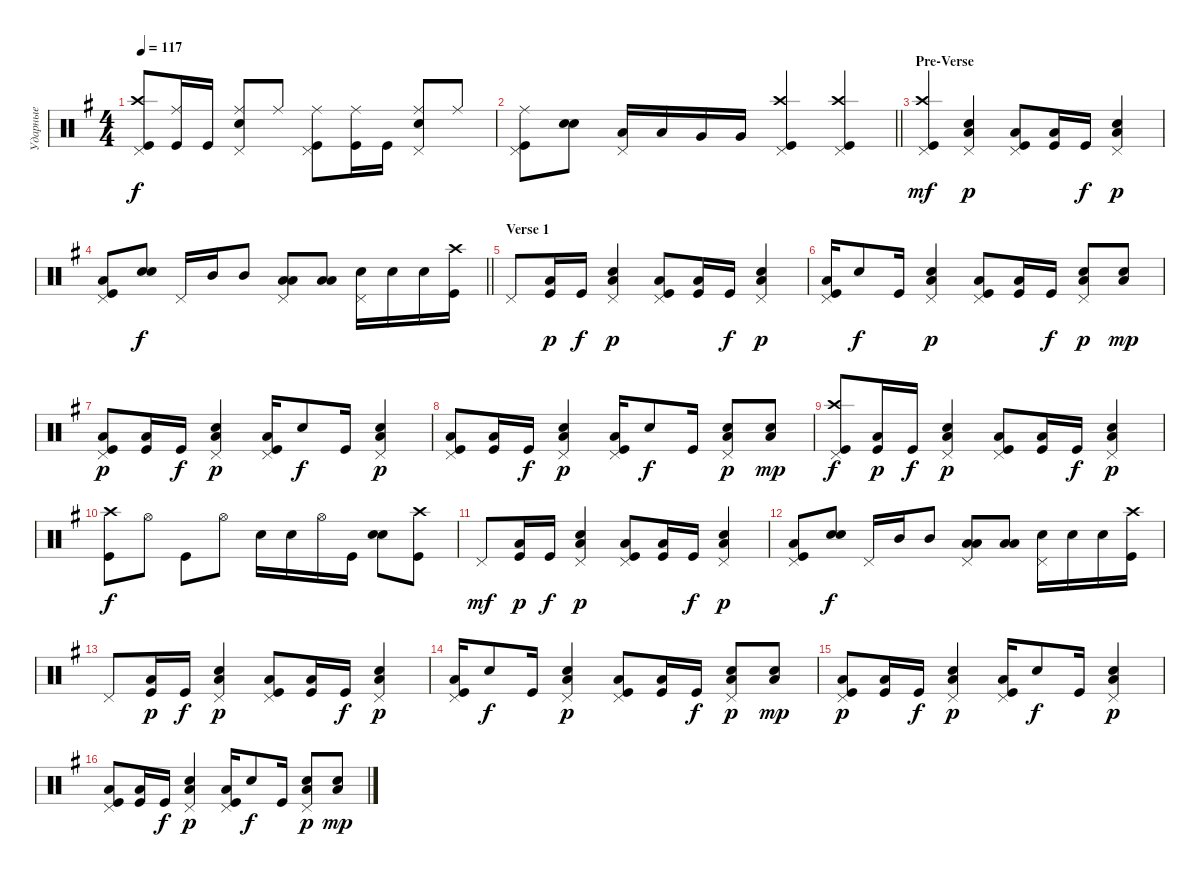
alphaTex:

\track ("Ударные" "Ударные") {instrument percussion}
\staff {score}
\articulation defaults
\ts (4 4)
\tempo 117
\clef neutral
\ks eminor
("Kick (hit)" "Crash high (hit)" "Pedal Hi-Hat (hit)").8{dy f} ("Kick (hit)" "Ride (middle)").16 "Kick (hit)".16 ("Snare (hit) 2" "Ride (middle)" "Pedal Hi-Hat (hit)").8 "Ride (middle)".8 ("Kick (hit)" "Ride (middle)" "Pedal Hi-Hat (hit)").8 ("Kick (hit)" "Ride (middle)").16 "Kick (hit)".16 ("Snare (hit) 2" "Ride (middle)" "Pedal Hi-Hat (hit)").8 "Ride (middle)".8 |
\barLineRight lightlight
("Kick (hit)" "Ride (middle)" "Pedal Hi-Hat (hit)").8 ("Snare (hit) 2" "Snare (hit) 2").8{bd 240} ("Low Tom (hit)" "Pedal Hi-Hat (hit)").16 "Low Tom (hit)".16 "Very Low Tom (hit)".16 "Very Low Tom (hit)".16 ("Crash high (hit)" "Kick (hit)" "Pedal Hi-Hat (hit)").4 ("Crash high (hit)" "Kick (hit)" "Pedal Hi-Hat (hit)").4 |
\section ("" "Pre-Verse")
("Kick (hit)" "Crash high (hit)" "Pedal Hi-Hat (hit)").4{dy mf} ("Snare (hit) 2" "Pedal Hi-Hat (hit)" "Low Floor Tom (hit)").4{dy p} ("Kick (hit)" "Pedal Hi-Hat (hit)" "Low Floor Tom (hit)").8 ("Kick (hit)" "Low Floor Tom (hit)").16 "Kick (hit)".16{dy f} ("Snare (hit) 2" "Pedal Hi-Hat (hit)" "Low Floor Tom (hit)").4{dy p} |
\barLineRight lightlight
("Kick (hit)" "Low Floor Tom (hit)" "Pedal Hi-Hat (hit)").8 ("Snare (hit) 2" "Snare (hit) 2").8{bd 240 dy f} "Pedal Hi-Hat (hit)".16 "Mid Tom (hit)".16 "Mid Tom (hit)".8 ("Pedal Hi-Hat (hit)" "Low Tom (hit)" "Low Tom (hit)").8{bd 240} ("Low Tom (hit)" "Low Tom (hit)").8{bd 240} ("Snare (hit) 2" "Pedal Hi-Hat (hit)").16 "Snare (hit) 2".16 "Snare (hit) 2".16 ("Kick (hit)" "Crash high (hit)").16 |
\section ("" "Verse 1")
"Pedal Hi-Hat (hit)".8 ("Low Floor Tom (hit)" "Kick (hit)").16{dy p} "Kick (hit)".16{dy f} ("Snare (hit) 2" "Pedal Hi-Hat (hit)" "Low Floor Tom (hit)").4{dy p} ("Kick (hit)" "Low Floor Tom (hit)" "Pedal Hi-Hat (hit)").8 ("Kick (hit)" "Low Floor Tom (hit)").16 "Kick (hit)".16{dy f} ("Snare (hit) 2" "Pedal Hi-Hat (hit)" "Low Floor Tom (hit)").4{dy p} |
("Kick (hit)" "Pedal Hi-Hat (hit)" "Low Floor Tom (hit)").16 "Snare (hit) 2".8{dy f} "Kick (hit)".16 ("Snare (hit) 2" "Pedal Hi-Hat (hit)" "Low Floor Tom (hit)").4{dy p} ("Kick (hit)" "Pedal Hi-Hat (hit)" "Low Floor Tom (hit)").8 ("Kick (hit)" "Low Floor Tom (hit)").16 "Kick (hit)".16{dy f} ("Snare (hit) 2" "Pedal Hi-Hat (hit)" "Low Floor Tom (hit)").8{dy p} ("Snare (hit) 2" "Low Floor Tom (hit)").8{dy mp} |
("Kick (hit)" "Low Floor Tom (hit)" "Pedal Hi-Hat (hit)").8{dy p} ("Kick (hit)" "Low Floor Tom (hit)").16 "Kick (hit)".16{dy f} ("Snare (hit) 2" "Pedal Hi-Hat (hit)" "Low Floor Tom (hit)").4{dy p} ("Kick (hit)" "Pedal Hi-Hat (hit)" "Low Floor Tom (hit)").16 "Snare (hit) 2".8{dy f} "Kick (hit)".16 ("Snare (hit) 2" "Pedal Hi-Hat (hit)" "Low Floor Tom (hit)").4{dy p} |
("Kick (hit)" "Low Floor Tom (hit)" "Pedal Hi-Hat (hit)").8 ("Kick (hit)" "Low Floor Tom (hit)").16 "Kick (hit)".16{dy f} ("Snare (hit) 2" "Pedal Hi-Hat (hit)" "Low Floor Tom (hit)").4{dy p} ("Kick (hit)" "Pedal Hi-Hat (hit)" "Low Floor Tom (hit)").16 "Snare (hit) 2".8{dy f} "Kick (hit)".16 ("Snare (hit) 2" "Pedal Hi-Hat (hit)" "Low Floor Tom (hit)").8{dy p} ("Snare (hit) 2" "Low Floor Tom (hit)").8{dy mp} |
("Kick (hit)" "Crash high (hit)" "Pedal Hi-Hat (hit)").8{dy f} ("Kick (hit)" "Low Floor Tom (hit)").16{dy p} "Kick (hit)".16{dy f} ("Snare (hit) 2" "Pedal Hi-Hat (hit)" "Low Floor Tom (hit)").4{dy p} ("Kick (hit)" "Low Floor Tom (hit)" "Pedal Hi-Hat (hit)").8 ("Kick (hit)" "Low Floor Tom (hit)").16 "Kick (hit)".16{dy f} ("Snare (hit) 2" "Pedal Hi-Hat (hit)" "Low Floor Tom (hit)").4{dy p} |
("Kick (hit)" "Crash high (hit)").8{dy f} "Hi-Hat (open)".8 "Kick (hit)".8 "Hi-Hat (open)".8 "Snare (hit) 2".16 "Snare (hit) 2".16 "Hi-Hat (open)".16 "Kick (hit)".16 ("Snare (hit) 2" "Snare (hit) 2").8{bd 240} ("Kick (hit)" "Crash high (hit)").8 |
"Pedal Hi-Hat (hit)".8{dy mf} ("Kick (hit)" "Low Floor Tom (hit)").16{dy p} "Kick (hit)".16{dy f} ("Snare (hit) 2" "Pedal Hi-Hat (hit)" "Low Floor Tom (hit)").4{dy p} ("Kick (hit)" "Pedal Hi-Hat (hit)" "Low Floor Tom (hit)").8 ("Kick (hit)" "Low Floor Tom (hit)").16 "Kick (hit)".16{dy f} ("Snare (hit) 2" "Pedal Hi-Hat (hit)" "Low Floor Tom (hit)").4{dy p} |
("Kick (hit)" "Low Floor Tom (hit)" "Pedal Hi-Hat (hit)").8 ("Snare (hit) 2" "Snare (hit) 2").8{bd 240 dy f} "Pedal Hi-Hat (hit)".16 "Mid Tom (hit)".16 "Mid Tom (hit)".8 ("Pedal Hi-Hat (hit)" "Low Tom (hit)" "Low Tom (hit)").8{bd 240} ("Low Tom (hit)" "Low Tom (hit)").8{bd 240} ("Snare (hit) 2" "Pedal Hi-Hat (hit)").16 "Snare (hit) 2".16 "Snare (hit) 2".16 ("Kick (hit)" "Crash high (hit)").16 |
"Pedal Hi-Hat (hit)".8 ("Low Floor Tom (hit)" "Kick (hit)").16{dy p} "Kick (hit)".16{dy f} ("Snare (hit) 2" "Pedal Hi-Hat (hit)" "Low Floor Tom (hit)").4{dy p} ("Kick (hit)" "Low Floor Tom (hit)" "Pedal Hi-Hat (hit)").8 ("Kick (hit)" "Low Floor Tom (hit)").16 "Kick (hit)".16{dy f} ("Snare (hit) 2" "Pedal Hi-Hat (hit)" "Low Floor Tom (hit)").4{dy p} |
("Kick (hit)" "Pedal Hi-Hat (hit)" "Low Floor Tom (hit)").16 "Snare (hit) 2".8{dy f} "Kick (hit)".16 ("Snare (hit) 2" "Pedal Hi-Hat (hit)" "Low Floor Tom (hit)").4{dy p} ("Kick (hit)" "Pedal Hi-Hat (hit)" "Low Floor Tom (hit)").8 ("Kick (hit)" "Low Floor Tom (hit)").16 "Kick (hit)".16{dy f} ("Snare (hit) 2" "Pedal Hi-Hat (hit)" "Low Floor Tom (hit)").8{dy p} ("Snare (hit) 2" "Low Floor Tom (hit)").8{dy mp} |
("Kick (hit)" "Low Floor Tom (hit)" "Pedal Hi-Hat (hit)").8{dy p} ("Kick (hit)" "Low Floor Tom (hit)").16 "Kick (hit)".16{dy f} ("Snare (hit) 2" "Pedal Hi-Hat (hit)" "Low Floor Tom (hit)").4{dy p} ("Kick (hit)" "Pedal Hi-Hat (hit)" "Low Floor Tom (hit)").16 "Snare (hit) 2".8{dy f} "Kick (hit)".16 ("Snare (hit) 2" "Pedal Hi-Hat (hit)" "Low Floor Tom (hit)").4{dy p} |
("Kick (hit)" "Low Floor Tom (hit)" "Pedal Hi-Hat (hit)").8 ("Kick (hit)" "Low Floor Tom (hit)").16 "Kick (hit)".16{dy f} ("Snare (hit) 2" "Pedal Hi-Hat (hit)" "Low Floor Tom (hit)").4{dy p} ("Kick (hit)" "Pedal Hi-Hat (hit)" "Low Floor Tom (hit)").16 "Snare (hit) 2".8{dy f} "Kick (hit)".16 ("Snare (hit) 2" "Pedal Hi-Hat (hit)" "Low Floor Tom (hit)").8{dy p} ("Snare (hit) 2" "Low Floor Tom (hit)").8{dy mp}
